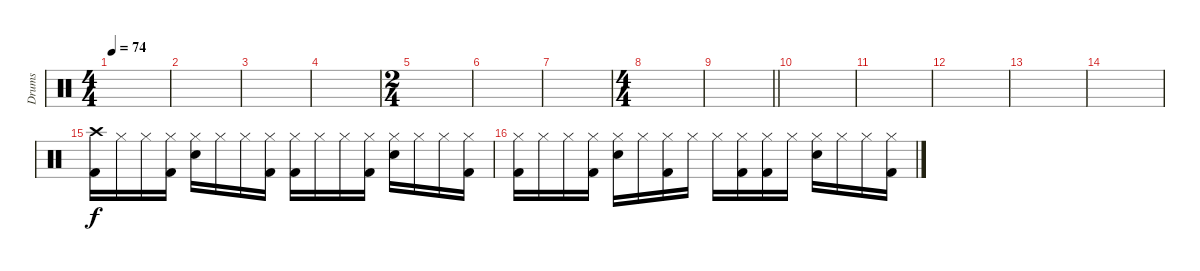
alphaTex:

\track ("Drums" "Drums") {instrument percussion}
\staff {score}
\articulation defaults
\ts (4 4)
\tempo 74
\clef neutral
\ks c
|
|
|
|
\ts (2 4)
|
|
|
\ts (4 4)
|
\barLineRight lightlight
|
|
|
|
|
|
("Crash high (hit)" "Kick (hit) 2").16 "Hi-Hat (closed)".16 "Hi-Hat (closed)".16 ("Hi-Hat (closed)" "Kick (hit) 2").16 ("Hi-Hat (closed)" "Snare (hit) 2").16 "Hi-Hat (closed)".16 "Hi-Hat (closed)".16 ("Hi-Hat (closed)" "Kick (hit) 2").16 ("Hi-Hat (closed)" "Kick (hit) 2").16 "Hi-Hat (closed)".16 "Hi-Hat (closed)".16 ("Hi-Hat (closed)" "Kick (hit) 2").16 ("Hi-Hat (closed)" "Snare (hit) 2").16 "Hi-Hat (closed)".16 "Hi-Hat (closed)".16 ("Hi-Hat (closed)" "Kick (hit) 2").16 |
("Hi-Hat (closed)" "Kick (hit) 2").16 "Hi-Hat (closed)".16 "Hi-Hat (closed)".16 ("Hi-Hat (closed)" "Kick (hit) 2").16 ("Hi-Hat (closed)" "Snare (hit) 2").16 "Hi-Hat (closed)".16 ("Hi-Hat (closed)" "Kick (hit) 2").16 "Hi-Hat (closed)".16 "Hi-Hat (closed)".16 ("Hi-Hat (closed)" "Kick (hit) 2").16 ("Hi-Hat (closed)" "Kick (hit) 2").16 "Hi-Hat (closed)".16 ("Hi-Hat (closed)" "Snare (hit) 2").16 "Hi-Hat (closed)".16 "Hi-Hat (closed)".16 ("Hi-Hat (closed)" "Kick (hit) 2").16
